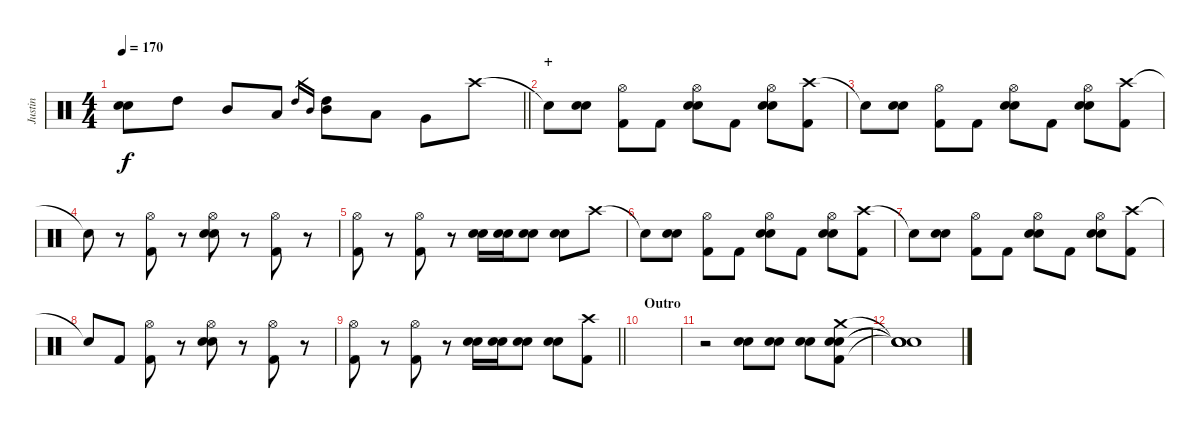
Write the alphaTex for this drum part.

\track ("Justin" "Justin") {instrument percussion}
\staff {score}
\articulation defaults
\ts (4 4)
\tempo 170
\clef neutral
\barLineRight lightlight
\ks c
("Electric Snare (hit)" "Snare (hit) 2").8{dy f} "High Tom (hit)".8 "Mid Tom (hit)".8 "Low Tom (hit)".8 "High Tom (hit)".16{gr} "Mid Tom (hit)".16{gr} ("High Tom (hit)" "Mid Tom (hit)").8 "Low Tom (hit)".8 "Very Low Tom (hit)".8 "Crash high (hit)".8 |
\section ("" "+")
"Snare (hit)"{t}.8 ("Electric Snare (hit)" "Snare (hit) 2").8 ("Hi-Hat (open)" "Kick (hit) 2").8 "Kick (hit) 2".8 ("Hi-Hat (open)" "Electric Snare (hit)" "Snare (hit) 2").8 "Kick (hit) 2".8 ("Hi-Hat (open)" "Electric Snare (hit)" "Snare (hit) 2").8 ("Crash high (hit)" "Kick (hit) 2").8 |
"Snare (hit)"{t}.8 ("Electric Snare (hit)" "Snare (hit) 2").8 ("Hi-Hat (open)" "Kick (hit) 2").8 "Kick (hit) 2".8 ("Hi-Hat (open)" "Electric Snare (hit)" "Snare (hit) 2").8 "Kick (hit) 2".8 ("Hi-Hat (open)" "Electric Snare (hit)" "Snare (hit) 2").8 ("Crash high (hit)" "Kick (hit) 2").8 |
"Snare (hit)"{t}.8 r.8 ("Hi-Hat (open)" "Kick (hit) 2").8 r.8 ("Hi-Hat (open)" "Electric Snare (hit)" "Snare (hit) 2").8 r.8 ("Hi-Hat (open)" "Kick (hit) 2").8 r.8 |
("Hi-Hat (open)" "Kick (hit) 2").8 r.8 ("Hi-Hat (open)" "Kick (hit) 2").8 r.8 ("Electric Snare (hit)" "Snare (hit) 2").16 ("Electric Snare (hit)" "Snare (hit) 2").16 ("Electric Snare (hit)" "Snare (hit) 2").8 ("Electric Snare (hit)" "Snare (hit) 2").8 "Crash high (hit)".8 |
"Snare (hit)"{t}.8 ("Electric Snare (hit)" "Snare (hit) 2").8 ("Hi-Hat (open)" "Kick (hit) 2").8 "Kick (hit) 2".8 ("Hi-Hat (open)" "Electric Snare (hit)" "Snare (hit) 2").8 "Kick (hit) 2".8 ("Hi-Hat (open)" "Electric Snare (hit)" "Snare (hit) 2").8 ("Crash high (hit)" "Kick (hit) 2").8 |
"Snare (hit)"{t}.8 ("Electric Snare (hit)" "Snare (hit) 2").8 ("Hi-Hat (open)" "Kick (hit) 2").8 "Kick (hit) 2".8 ("Hi-Hat (open)" "Electric Snare (hit)" "Snare (hit) 2").8 "Kick (hit) 2".8 ("Hi-Hat (open)" "Electric Snare (hit)" "Snare (hit) 2").8 ("Crash high (hit)" "Kick (hit) 2").8 |
"Snare (hit)"{t}.8 "Kick (hit) 2".8 ("Hi-Hat (open)" "Kick (hit) 2").8 r.8 ("Hi-Hat (open)" "Electric Snare (hit)" "Snare (hit) 2").8 r.8 ("Hi-Hat (open)" "Kick (hit) 2").8 r.8 |
\barLineRight lightlight
("Hi-Hat (open)" "Kick (hit) 2").8 r.8 ("Hi-Hat (open)" "Kick (hit) 2").8 r.8 ("Electric Snare (hit)" "Snare (hit) 2").16 ("Electric Snare (hit)" "Snare (hit) 2").16 ("Electric Snare (hit)" "Snare (hit) 2").8 ("Electric Snare (hit)" "Snare (hit) 2").8 ("Crash high (hit)" "Kick (hit) 2").8 |
\section ("" "Outro")
|
r.2 ("Electric Snare (hit)" "Snare (hit) 2").8 ("Electric Snare (hit)" "Snare (hit) 2").8 ("Electric Snare (hit)" "Snare (hit) 2").8 ("Crash medium (hit)" "Electric Snare (hit)" "Snare (hit) 2" "Kick (hit) 2").8 |
("Snare (hit)"{t} "Snare (hit)"{t} "Snare (hit)"{t} "Snare (hit)"{t}).1
